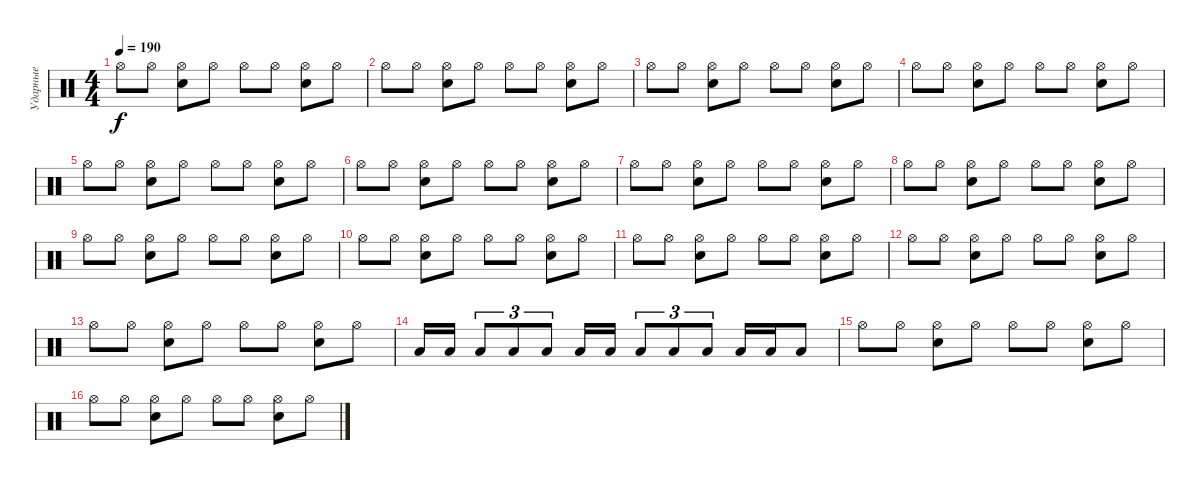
\track ("Ударные" "Ударные") {instrument percussion}
\staff {score}
\articulation defaults
\ts (4 4)
\tempo 190
\clef neutral
\ks c "Hi-Hat (open)".8{dy f} "Hi-Hat (open)".8
("Hi-Hat (open)" "Electric Snare (hit)").8 "Hi-Hat (open)".8 "Hi-Hat (open)".8 "Hi-Hat (open)".8 ("Hi-Hat (open)" "Electric Snare (hit)").8 "Hi-Hat (open)".8 |
"Hi-Hat (open)".8 "Hi-Hat (open)".8 ("Hi-Hat (open)" "Electric Snare (hit)").8 "Hi-Hat (open)".8 "Hi-Hat (open)".8 "Hi-Hat (open)".8 ("Hi-Hat (open)" "Electric Snare (hit)").8 "Hi-Hat (open)".8 |
"Hi-Hat (open)".8 "Hi-Hat (open)".8 ("Hi-Hat (open)" "Electric Snare (hit)").8 "Hi-Hat (open)".8 "Hi-Hat (open)".8 "Hi-Hat (open)".8 ("Hi-Hat (open)" "Electric Snare (hit)").8 "Hi-Hat (open)".8 |
"Hi-Hat (open)".8 "Hi-Hat (open)".8 ("Hi-Hat (open)" "Electric Snare (hit)").8 "Hi-Hat (open)".8 "Hi-Hat (open)".8 "Hi-Hat (open)".8 ("Hi-Hat (open)" "Electric Snare (hit)").8 "Hi-Hat (open)".8 |
"Hi-Hat (open)".8 "Hi-Hat (open)".8 ("Hi-Hat (open)" "Electric Snare (hit)").8 "Hi-Hat (open)".8 "Hi-Hat (open)".8 "Hi-Hat (open)".8 ("Hi-Hat (open)" "Electric Snare (hit)").8 "Hi-Hat (open)".8 |
"Hi-Hat (open)".8 "Hi-Hat (open)".8 ("Hi-Hat (open)" "Electric Snare (hit)").8 "Hi-Hat (open)".8 "Hi-Hat (open)".8 "Hi-Hat (open)".8 ("Hi-Hat (open)" "Electric Snare (hit)").8 "Hi-Hat (open)".8 |
"Hi-Hat (open)".8 "Hi-Hat (open)".8 ("Hi-Hat (open)" "Electric Snare (hit)").8 "Hi-Hat (open)".8 "Hi-Hat (open)".8 "Hi-Hat (open)".8 ("Hi-Hat (open)" "Electric Snare (hit)").8 "Hi-Hat (open)".8 |
"Hi-Hat (open)".8 "Hi-Hat (open)".8 ("Hi-Hat (open)" "Electric Snare (hit)").8 "Hi-Hat (open)".8 "Hi-Hat (open)".8 "Hi-Hat (open)".8 ("Hi-Hat (open)" "Electric Snare (hit)").8 "Hi-Hat (open)".8 |
"Hi-Hat (open)".8 "Hi-Hat (open)".8 ("Hi-Hat (open)" "Electric Snare (hit)").8 "Hi-Hat (open)".8 "Hi-Hat (open)".8 "Hi-Hat (open)".8 ("Hi-Hat (open)" "Electric Snare (hit)").8 "Hi-Hat (open)".8 |
"Hi-Hat (open)".8 "Hi-Hat (open)".8 ("Hi-Hat (open)" "Electric Snare (hit)").8 "Hi-Hat (open)".8 "Hi-Hat (open)".8 "Hi-Hat (open)".8 ("Hi-Hat (open)" "Electric Snare (hit)").8 "Hi-Hat (open)".8 |
"Hi-Hat (open)".8 "Hi-Hat (open)".8 ("Hi-Hat (open)" "Electric Snare (hit)").8 "Hi-Hat (open)".8 "Hi-Hat (open)".8 "Hi-Hat (open)".8 ("Hi-Hat (open)" "Electric Snare (hit)").8 "Hi-Hat (open)".8 |
"Hi-Hat (open)".8 "Hi-Hat (open)".8 ("Hi-Hat (open)" "Electric Snare (hit)").8 "Hi-Hat (open)".8 "Hi-Hat (open)".8 "Hi-Hat (open)".8 ("Hi-Hat (open)" "Electric Snare (hit)").8 "Hi-Hat (open)".8 |
"Hi-Hat (open)".8 "Hi-Hat (open)".8 ("Hi-Hat (open)" "Electric Snare (hit)").8 "Hi-Hat (open)".8 "Hi-Hat (open)".8 "Hi-Hat (open)".8 ("Hi-Hat (open)" "Electric Snare (hit)").8 "Hi-Hat (open)".8 |
"Low Floor Tom (hit)".16 "Low Floor Tom (hit)".16 "Low Floor Tom (hit)".8{tu (3 2)} "Low Floor Tom (hit)".8{tu (3 2)} "Low Floor Tom (hit)".8{tu (3 2)} "Low Floor Tom (hit)".16 "Low Floor Tom (hit)".16 "Low Floor Tom (hit)".8{tu (3 2)} "Low Floor Tom (hit)".8{tu (3 2)} "Low Floor Tom (hit)".8{tu (3 2)} "Low Floor Tom (hit)".16 "Low Floor Tom (hit)".16 "Low Floor Tom (hit)".8 |
"Hi-Hat (open)".8 "Hi-Hat (open)".8 ("Hi-Hat (open)" "Electric Snare (hit)").8 "Hi-Hat (open)".8 "Hi-Hat (open)".8 "Hi-Hat (open)".8 ("Hi-Hat (open)" "Electric Snare (hit)").8 "Hi-Hat (open)".8 |
"Hi-Hat (open)".8 "Hi-Hat (open)".8 ("Hi-Hat (open)" "Electric Snare (hit)").8 "Hi-Hat (open)".8 "Hi-Hat (open)".8 "Hi-Hat (open)".8 ("Hi-Hat (open)" "Electric Snare (hit)").8 "Hi-Hat (open)".8
